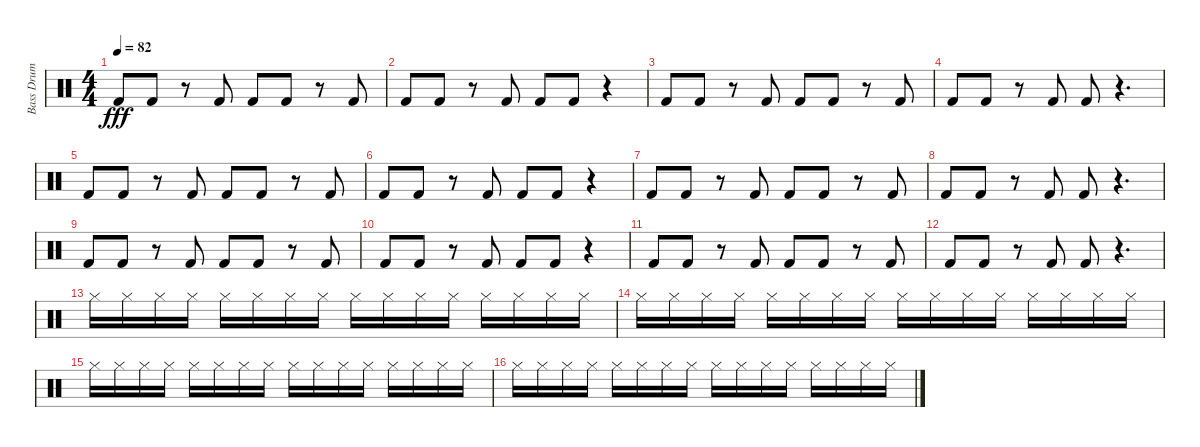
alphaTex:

\track ("Bass Drum" "Bass Drum") {instrument percussion}
\staff {score}
\articulation defaults
\ts (4 4)
\tempo 82
\clef neutral
\ks c "Kick (hit) 2".8{dy fff} "Kick (hit) 2".8
r.8 "Kick (hit) 2".8 "Kick (hit) 2".8 "Kick (hit) 2".8 r.8 "Kick (hit) 2".8 |
"Kick (hit) 2".8 "Kick (hit) 2".8 r.8 "Kick (hit) 2".8 "Kick (hit) 2".8 "Kick (hit) 2".8 r.4 |
"Kick (hit) 2".8 "Kick (hit) 2".8 r.8 "Kick (hit) 2".8 "Kick (hit) 2".8 "Kick (hit) 2".8 r.8 "Kick (hit) 2".8 |
"Kick (hit) 2".8 "Kick (hit) 2".8 r.8 "Kick (hit) 2".8 "Kick (hit) 2".8 r.4{d} |
"Kick (hit) 2".8 "Kick (hit) 2".8 r.8 "Kick (hit) 2".8 "Kick (hit) 2".8 "Kick (hit) 2".8 r.8 "Kick (hit) 2".8 |
"Kick (hit) 2".8 "Kick (hit) 2".8 r.8 "Kick (hit) 2".8 "Kick (hit) 2".8 "Kick (hit) 2".8 r.4 |
"Kick (hit) 2".8 "Kick (hit) 2".8 r.8 "Kick (hit) 2".8 "Kick (hit) 2".8 "Kick (hit) 2".8 r.8 "Kick (hit) 2".8 |
"Kick (hit) 2".8 "Kick (hit) 2".8 r.8 "Kick (hit) 2".8 "Kick (hit) 2".8 r.4{d} |
"Kick (hit) 2".8 "Kick (hit) 2".8 r.8 "Kick (hit) 2".8 "Kick (hit) 2".8 "Kick (hit) 2".8 r.8 "Kick (hit) 2".8 |
"Kick (hit) 2".8 "Kick (hit) 2".8 r.8 "Kick (hit) 2".8 "Kick (hit) 2".8 "Kick (hit) 2".8 r.4 |
"Kick (hit) 2".8 "Kick (hit) 2".8 r.8 "Kick (hit) 2".8 "Kick (hit) 2".8 "Kick (hit) 2".8 r.8 "Kick (hit) 2".8 |
"Kick (hit) 2".8 "Kick (hit) 2".8 r.8 "Kick (hit) 2".8 "Kick (hit) 2".8 r.4{d} |
"Hi-Hat (closed)".16 "Hi-Hat (closed)".16 "Hi-Hat (closed)".16 "Hi-Hat (closed)".16 "Hi-Hat (closed)".16 "Hi-Hat (closed)".16 "Hi-Hat (closed)".16 "Hi-Hat (closed)".16 "Hi-Hat (closed)".16 "Hi-Hat (closed)".16 "Hi-Hat (closed)".16 "Hi-Hat (closed)".16 "Hi-Hat (closed)".16 "Hi-Hat (closed)".16 "Hi-Hat (closed)".16 "Hi-Hat (closed)".16 |
"Hi-Hat (closed)".16 "Hi-Hat (closed)".16 "Hi-Hat (closed)".16 "Hi-Hat (closed)".16 "Hi-Hat (closed)".16 "Hi-Hat (closed)".16 "Hi-Hat (closed)".16 "Hi-Hat (closed)".16 "Hi-Hat (closed)".16 "Hi-Hat (closed)".16 "Hi-Hat (closed)".16 "Hi-Hat (closed)".16 "Hi-Hat (closed)".16 "Hi-Hat (closed)".16 "Hi-Hat (closed)".16 "Hi-Hat (closed)".16 |
"Hi-Hat (closed)".16 "Hi-Hat (closed)".16 "Hi-Hat (closed)".16 "Hi-Hat (closed)".16 "Hi-Hat (closed)".16 "Hi-Hat (closed)".16 "Hi-Hat (closed)".16 "Hi-Hat (closed)".16 "Hi-Hat (closed)".16 "Hi-Hat (closed)".16 "Hi-Hat (closed)".16 "Hi-Hat (closed)".16 "Hi-Hat (closed)".16 "Hi-Hat (closed)".16 "Hi-Hat (closed)".16 "Hi-Hat (closed)".16 |
"Hi-Hat (closed)".16 "Hi-Hat (closed)".16 "Hi-Hat (closed)".16 "Hi-Hat (closed)".16 "Hi-Hat (closed)".16 "Hi-Hat (closed)".16 "Hi-Hat (closed)".16 "Hi-Hat (closed)".16 "Hi-Hat (closed)".16 "Hi-Hat (closed)".16 "Hi-Hat (closed)".16 "Hi-Hat (closed)".16 "Hi-Hat (closed)".16 "Hi-Hat (closed)".16 "Hi-Hat (closed)".16 "Hi-Hat (closed)".16
